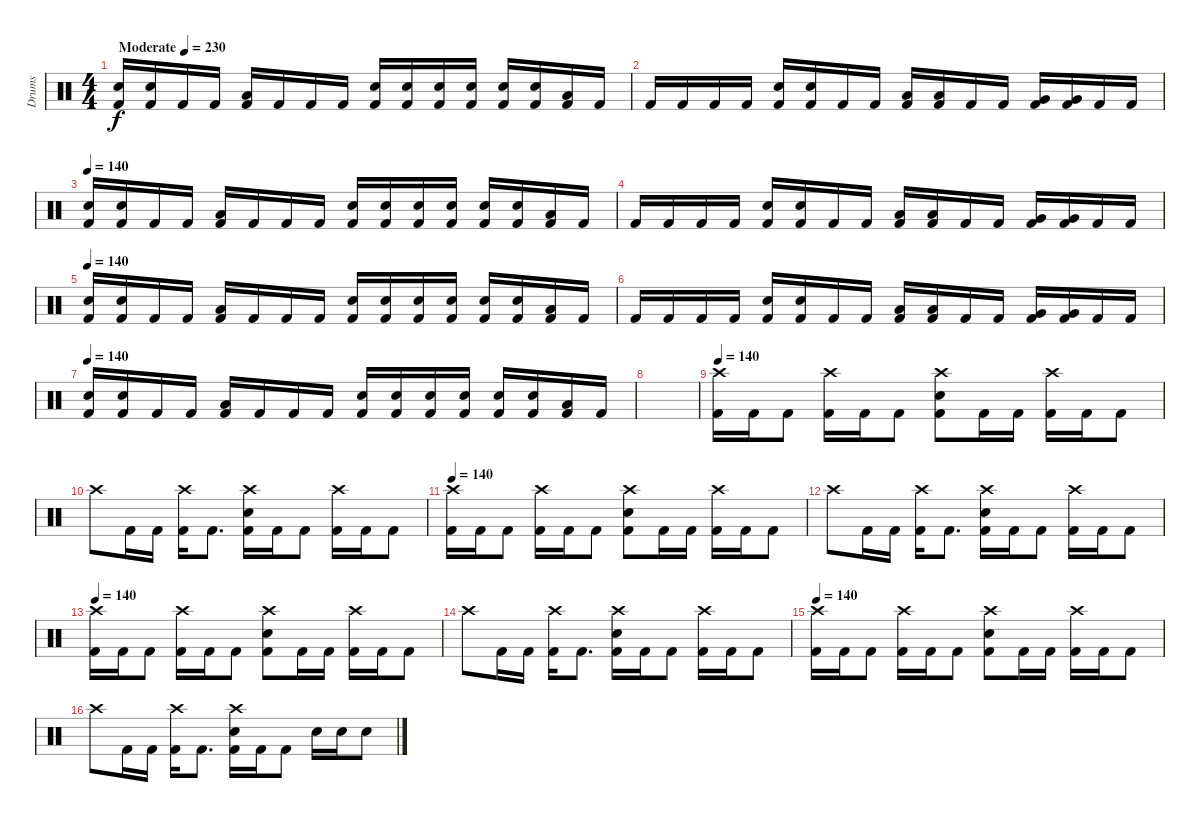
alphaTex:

\track ("Drums" "Drums") {instrument percussion}
\staff {score}
\articulation defaults
\ts (4 4)
\tempo (230 "Moderate")
\tempo 140
\tempo (230 "Moderate")
\clef neutral
\ks c
("Electric Snare (hit)" "Kick (hit) 2").16{dy f} ("Electric Snare (hit)" "Kick (hit) 2").16 "Kick (hit) 2".16 "Kick (hit) 2".16 ("Low Tom (hit)" "Kick (hit) 2").16 "Kick (hit) 2".16 "Kick (hit) 2".16 "Kick (hit) 2".16 ("Electric Snare (hit)" "Kick (hit) 2").16 ("Electric Snare (hit)" "Kick (hit) 2").16 ("Electric Snare (hit)" "Kick (hit) 2").16 ("Electric Snare (hit)" "Kick (hit) 2").16 ("Electric Snare (hit)" "Kick (hit) 2").16 ("Electric Snare (hit)" "Kick (hit) 2").16 ("Low Tom (hit)" "Kick (hit) 2").16 "Kick (hit) 2".16 |
"Kick (hit) 2".16 "Kick (hit) 2".16 "Kick (hit) 2".16 "Kick (hit) 2".16 ("Electric Snare (hit)" "Kick (hit) 2").16 ("Electric Snare (hit)" "Kick (hit) 2").16 "Kick (hit) 2".16 "Kick (hit) 2".16 ("Low Tom (hit)" "Kick (hit) 2").16 ("Low Tom (hit)" "Kick (hit) 2").16 "Kick (hit) 2".16 "Kick (hit) 2".16 ("Very Low Tom (hit)" "Kick (hit) 2").16 ("Very Low Tom (hit)" "Kick (hit) 2").16 "Kick (hit) 2".16 "Kick (hit) 2".16 |
\tempo 140
("Electric Snare (hit)" "Kick (hit) 2").16 ("Electric Snare (hit)" "Kick (hit) 2").16 "Kick (hit) 2".16 "Kick (hit) 2".16 ("Low Tom (hit)" "Kick (hit) 2").16 "Kick (hit) 2".16 "Kick (hit) 2".16 "Kick (hit) 2".16 ("Electric Snare (hit)" "Kick (hit) 2").16 ("Electric Snare (hit)" "Kick (hit) 2").16 ("Electric Snare (hit)" "Kick (hit) 2").16 ("Electric Snare (hit)" "Kick (hit) 2").16 ("Electric Snare (hit)" "Kick (hit) 2").16 ("Electric Snare (hit)" "Kick (hit) 2").16 ("Low Tom (hit)" "Kick (hit) 2").16 "Kick (hit) 2".16 |
"Kick (hit) 2".16 "Kick (hit) 2".16 "Kick (hit) 2".16 "Kick (hit) 2".16 ("Electric Snare (hit)" "Kick (hit) 2").16 ("Electric Snare (hit)" "Kick (hit) 2").16 "Kick (hit) 2".16 "Kick (hit) 2".16 ("Low Tom (hit)" "Kick (hit) 2").16 ("Low Tom (hit)" "Kick (hit) 2").16 "Kick (hit) 2".16 "Kick (hit) 2".16 ("Very Low Tom (hit)" "Kick (hit) 2").16 ("Very Low Tom (hit)" "Kick (hit) 2").16 "Kick (hit) 2".16 "Kick (hit) 2".16 |
\tempo 140
("Electric Snare (hit)" "Kick (hit) 2").16 ("Electric Snare (hit)" "Kick (hit) 2").16 "Kick (hit) 2".16 "Kick (hit) 2".16 ("Low Tom (hit)" "Kick (hit) 2").16 "Kick (hit) 2".16 "Kick (hit) 2".16 "Kick (hit) 2".16 ("Electric Snare (hit)" "Kick (hit) 2").16 ("Electric Snare (hit)" "Kick (hit) 2").16 ("Electric Snare (hit)" "Kick (hit) 2").16 ("Electric Snare (hit)" "Kick (hit) 2").16 ("Electric Snare (hit)" "Kick (hit) 2").16 ("Electric Snare (hit)" "Kick (hit) 2").16 ("Low Tom (hit)" "Kick (hit) 2").16 "Kick (hit) 2".16 |
"Kick (hit) 2".16 "Kick (hit) 2".16 "Kick (hit) 2".16 "Kick (hit) 2".16 ("Electric Snare (hit)" "Kick (hit) 2").16 ("Electric Snare (hit)" "Kick (hit) 2").16 "Kick (hit) 2".16 "Kick (hit) 2".16 ("Low Tom (hit)" "Kick (hit) 2").16 ("Low Tom (hit)" "Kick (hit) 2").16 "Kick (hit) 2".16 "Kick (hit) 2".16 ("Very Low Tom (hit)" "Kick (hit) 2").16 ("Very Low Tom (hit)" "Kick (hit) 2").16 "Kick (hit) 2".16 "Kick (hit) 2".16 |
\tempo 140
("Electric Snare (hit)" "Kick (hit) 2").16 ("Electric Snare (hit)" "Kick (hit) 2").16 "Kick (hit) 2".16 "Kick (hit) 2".16 ("Low Tom (hit)" "Kick (hit) 2").16 "Kick (hit) 2".16 "Kick (hit) 2".16 "Kick (hit) 2".16 ("Electric Snare (hit)" "Kick (hit) 2").16 ("Electric Snare (hit)" "Kick (hit) 2").16 ("Electric Snare (hit)" "Kick (hit) 2").16 ("Electric Snare (hit)" "Kick (hit) 2").16 ("Electric Snare (hit)" "Kick (hit) 2").16 ("Electric Snare (hit)" "Kick (hit) 2").16 ("Low Tom (hit)" "Kick (hit) 2").16 "Kick (hit) 2".16 |
|
\tempo 140
("Crash high (hit)" "Kick (hit) 2").16 "Kick (hit) 2".16 "Kick (hit) 2".8 ("Crash high (hit)" "Kick (hit) 2").16 "Kick (hit) 2".16 "Kick (hit) 2".8 ("Crash high (hit)" "Electric Snare (hit)" "Kick (hit) 2").8 "Kick (hit) 2".16 "Kick (hit) 2".16 ("Crash high (hit)" "Kick (hit) 2").16 "Kick (hit) 2".16 "Kick (hit) 2".8 |
"Crash high (hit)".8 "Kick (hit) 2".16 "Kick (hit) 2".16 ("Crash high (hit)" "Kick (hit) 2").16 "Kick (hit) 2".8{d} ("Crash high (hit)" "Electric Snare (hit)" "Kick (hit) 2").16 "Kick (hit) 2".16 "Kick (hit) 2".8 ("Crash high (hit)" "Kick (hit) 2").16 "Kick (hit) 2".16 "Kick (hit) 2".8 |
\tempo 140
("Crash high (hit)" "Kick (hit) 2").16 "Kick (hit) 2".16 "Kick (hit) 2".8 ("Crash high (hit)" "Kick (hit) 2").16 "Kick (hit) 2".16 "Kick (hit) 2".8 ("Crash high (hit)" "Electric Snare (hit)" "Kick (hit) 2").8 "Kick (hit) 2".16 "Kick (hit) 2".16 ("Crash high (hit)" "Kick (hit) 2").16 "Kick (hit) 2".16 "Kick (hit) 2".8 |
"Crash high (hit)".8 "Kick (hit) 2".16 "Kick (hit) 2".16 ("Crash high (hit)" "Kick (hit) 2").16 "Kick (hit) 2".8{d} ("Crash high (hit)" "Electric Snare (hit)" "Kick (hit) 2").16 "Kick (hit) 2".16 "Kick (hit) 2".8 ("Crash high (hit)" "Kick (hit) 2").16 "Kick (hit) 2".16 "Kick (hit) 2".8 |
\tempo 140
("Crash high (hit)" "Kick (hit) 2").16 "Kick (hit) 2".16 "Kick (hit) 2".8 ("Crash high (hit)" "Kick (hit) 2").16 "Kick (hit) 2".16 "Kick (hit) 2".8 ("Crash high (hit)" "Electric Snare (hit)" "Kick (hit) 2").8 "Kick (hit) 2".16 "Kick (hit) 2".16 ("Crash high (hit)" "Kick (hit) 2").16 "Kick (hit) 2".16 "Kick (hit) 2".8 |
"Crash high (hit)".8 "Kick (hit) 2".16 "Kick (hit) 2".16 ("Crash high (hit)" "Kick (hit) 2").16 "Kick (hit) 2".8{d} ("Crash high (hit)" "Electric Snare (hit)" "Kick (hit) 2").16 "Kick (hit) 2".16 "Kick (hit) 2".8 ("Crash high (hit)" "Kick (hit) 2").16 "Kick (hit) 2".16 "Kick (hit) 2".8 |
\tempo 140
("Crash high (hit)" "Kick (hit) 2").16 "Kick (hit) 2".16 "Kick (hit) 2".8 ("Crash high (hit)" "Kick (hit) 2").16 "Kick (hit) 2".16 "Kick (hit) 2".8 ("Crash high (hit)" "Electric Snare (hit)" "Kick (hit) 2").8 "Kick (hit) 2".16 "Kick (hit) 2".16 ("Crash high (hit)" "Kick (hit) 2").16 "Kick (hit) 2".16 "Kick (hit) 2".8 |
"Crash high (hit)".8 "Kick (hit) 2".16 "Kick (hit) 2".16 ("Crash high (hit)" "Kick (hit) 2").16 "Kick (hit) 2".8{d} ("Crash high (hit)" "Electric Snare (hit)" "Kick (hit) 2").16 "Kick (hit) 2".16 "Kick (hit) 2".8 "Electric Snare (hit)".16 "Electric Snare (hit)".16 "Electric Snare (hit)".8
